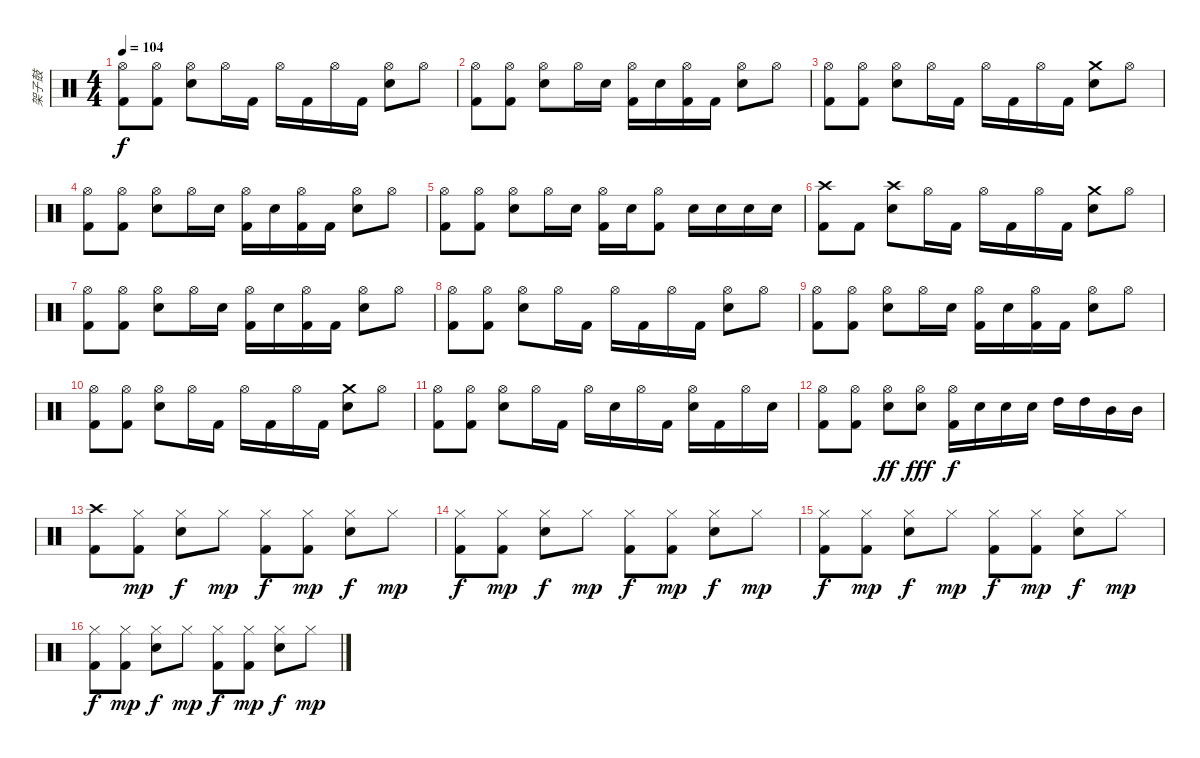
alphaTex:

\track ("架子鼓" "架子鼓") {instrument percussion}
\staff {score}
\articulation defaults
\ts (4 4)
\tempo 104
\clef neutral
\ks c
("Hi-Hat (open)" "Kick (hit) 2").8{dy f} ("Hi-Hat (open)" "Kick (hit) 2").8 ("Hi-Hat (open)" "Electric Snare (hit)").8 "Hi-Hat (open)".16 "Kick (hit) 2".16 "Hi-Hat (open)".16 "Kick (hit) 2".16 "Hi-Hat (open)".16 "Kick (hit) 2".16 ("Hi-Hat (open)" "Electric Snare (hit)").8 "Hi-Hat (open)".8 |
("Hi-Hat (open)" "Kick (hit) 2").8 ("Hi-Hat (open)" "Kick (hit) 2").8 ("Hi-Hat (open)" "Electric Snare (hit)").8 "Hi-Hat (open)".16 "Electric Snare (hit)".16 ("Hi-Hat (open)" "Kick (hit) 2").16 "Electric Snare (hit)".16 ("Hi-Hat (open)" "Kick (hit) 2").16 "Kick (hit) 2".16 ("Hi-Hat (open)" "Electric Snare (hit)").8 "Hi-Hat (open)".8 |
("Hi-Hat (open)" "Kick (hit) 2").8 ("Hi-Hat (open)" "Kick (hit) 2").8 ("Hi-Hat (open)" "Electric Snare (hit)").8 "Hi-Hat (open)".16 "Kick (hit) 2".16 "Hi-Hat (open)".16 "Kick (hit) 2".16 "Hi-Hat (open)".16 "Kick (hit) 2".16 ("Crash medium (hit)" "Electric Snare (hit)").8 "Hi-Hat (open)".8 |
("Hi-Hat (open)" "Kick (hit) 2").8 ("Hi-Hat (open)" "Kick (hit) 2").8 ("Hi-Hat (open)" "Electric Snare (hit)").8 "Hi-Hat (open)".16 "Electric Snare (hit)".16 ("Hi-Hat (open)" "Kick (hit) 2").16 "Electric Snare (hit)".16 ("Hi-Hat (open)" "Kick (hit) 2").16 "Kick (hit) 2".16 ("Hi-Hat (open)" "Electric Snare (hit)").8 "Hi-Hat (open)".8 |
("Hi-Hat (open)" "Kick (hit) 2").8 ("Hi-Hat (open)" "Kick (hit) 2").8 ("Hi-Hat (open)" "Electric Snare (hit)").8 "Hi-Hat (open)".16 "Electric Snare (hit)".16 ("Hi-Hat (open)" "Kick (hit) 2").16 "Electric Snare (hit)".16 ("Hi-Hat (open)" "Kick (hit) 2").8 "Electric Snare (hit)".16 "Electric Snare (hit)".16 "Electric Snare (hit)".16 "Electric Snare (hit)".16 |
("Crash high (hit)" "Kick (hit) 2").8 "Kick (hit) 2".8 ("Crash high (hit)" "Electric Snare (hit)").8 "Hi-Hat (open)".16 "Kick (hit) 2".16 "Hi-Hat (open)".16 "Kick (hit) 2".16 "Hi-Hat (open)".16 "Kick (hit) 2".16 ("Crash medium (hit)" "Electric Snare (hit)").8 "Hi-Hat (open)".8 |
("Hi-Hat (open)" "Kick (hit) 2").8 ("Hi-Hat (open)" "Kick (hit) 2").8 ("Hi-Hat (open)" "Electric Snare (hit)").8 "Hi-Hat (open)".16 "Electric Snare (hit)".16 ("Hi-Hat (open)" "Kick (hit) 2").16 "Electric Snare (hit)".16 ("Hi-Hat (open)" "Kick (hit) 2").16 "Kick (hit) 2".16 ("Hi-Hat (open)" "Electric Snare (hit)").8 "Hi-Hat (open)".8 |
("Hi-Hat (open)" "Kick (hit) 2").8 ("Hi-Hat (open)" "Kick (hit) 2").8 ("Hi-Hat (open)" "Electric Snare (hit)").8 "Hi-Hat (open)".16 "Kick (hit) 2".16 "Hi-Hat (open)".16 "Kick (hit) 2".16 "Hi-Hat (open)".16 "Kick (hit) 2".16 ("Hi-Hat (open)" "Electric Snare (hit)").8 "Hi-Hat (open)".8 |
("Hi-Hat (open)" "Kick (hit) 2").8 ("Hi-Hat (open)" "Kick (hit) 2").8 ("Hi-Hat (open)" "Electric Snare (hit)").8 "Hi-Hat (open)".16 "Electric Snare (hit)".16 ("Hi-Hat (open)" "Kick (hit) 2").16 "Electric Snare (hit)".16 ("Hi-Hat (open)" "Kick (hit) 2").16 "Kick (hit) 2".16 ("Hi-Hat (open)" "Electric Snare (hit)").8 "Hi-Hat (open)".8 |
("Hi-Hat (open)" "Kick (hit) 2").8 ("Hi-Hat (open)" "Kick (hit) 2").8 ("Hi-Hat (open)" "Electric Snare (hit)").8 "Hi-Hat (open)".16 "Kick (hit) 2".16 "Hi-Hat (open)".16 "Kick (hit) 2".16 "Hi-Hat (open)".16 "Kick (hit) 2".16 ("Crash medium (hit)" "Electric Snare (hit)").8 "Hi-Hat (open)".8 |
("Hi-Hat (open)" "Kick (hit) 2").8 ("Hi-Hat (open)" "Kick (hit) 2").8 ("Hi-Hat (open)" "Electric Snare (hit)").8 "Hi-Hat (open)".16 "Kick (hit) 2".16 "Hi-Hat (open)".16 "Electric Snare (hit)".16 "Hi-Hat (open)".16 "Kick (hit) 2".16 ("Hi-Hat (open)" "Electric Snare (hit)").16 "Kick (hit) 2".16 "Hi-Hat (open)".16 "Electric Snare (hit)".16 |
("Hi-Hat (open)" "Kick (hit) 2").8 ("Hi-Hat (open)" "Kick (hit) 2").8 ("Hi-Hat (open)" "Electric Snare (hit)").8{dy ff} ("Hi-Hat (open)" "Electric Snare (hit)").8{dy fff} ("Hi-Hat (open)" "Kick (hit) 2").16{dy f} "Electric Snare (hit)".16 "Electric Snare (hit)".16 "Electric Snare (hit)".16 "High Tom (hit)".16 "High Tom (hit)".16 "Mid Tom (hit)".16 "Mid Tom (hit)".16 |
("Crash high (hit)" "Kick (hit) 2").8 ("Hi-Hat (closed)" "Kick (hit) 2").8{dy mp} ("Hi-Hat (closed)" "Electric Snare (hit)").8{dy f} "Hi-Hat (closed)".8{dy mp} ("Hi-Hat (closed)" "Kick (hit) 2").8{dy f} ("Hi-Hat (closed)" "Kick (hit) 2").8{dy mp} ("Hi-Hat (closed)" "Electric Snare (hit)").8{dy f} "Hi-Hat (closed)".8{dy mp} |
("Hi-Hat (closed)" "Kick (hit) 2").8{dy f} ("Hi-Hat (closed)" "Kick (hit) 2").8{dy mp} ("Hi-Hat (closed)" "Electric Snare (hit)").8{dy f} "Hi-Hat (closed)".8{dy mp} ("Hi-Hat (closed)" "Kick (hit) 2").8{dy f} ("Hi-Hat (closed)" "Kick (hit) 2").8{dy mp} ("Hi-Hat (closed)" "Electric Snare (hit)").8{dy f} "Hi-Hat (closed)".8{dy mp} |
("Hi-Hat (closed)" "Kick (hit) 2").8{dy f} ("Hi-Hat (closed)" "Kick (hit) 2").8{dy mp} ("Hi-Hat (closed)" "Electric Snare (hit)").8{dy f} "Hi-Hat (closed)".8{dy mp} ("Hi-Hat (closed)" "Kick (hit) 2").8{dy f} ("Hi-Hat (closed)" "Kick (hit) 2").8{dy mp} ("Hi-Hat (closed)" "Electric Snare (hit)").8{dy f} "Hi-Hat (closed)".8{dy mp} |
("Hi-Hat (closed)" "Kick (hit) 2").8{dy f} ("Hi-Hat (closed)" "Kick (hit) 2").8{dy mp} ("Hi-Hat (closed)" "Electric Snare (hit)").8{dy f} "Hi-Hat (closed)".8{dy mp} ("Hi-Hat (closed)" "Kick (hit) 2").8{dy f} ("Hi-Hat (closed)" "Kick (hit) 2").8{dy mp} ("Hi-Hat (closed)" "Electric Snare (hit)").8{dy f} "Hi-Hat (closed)".8{dy mp}
